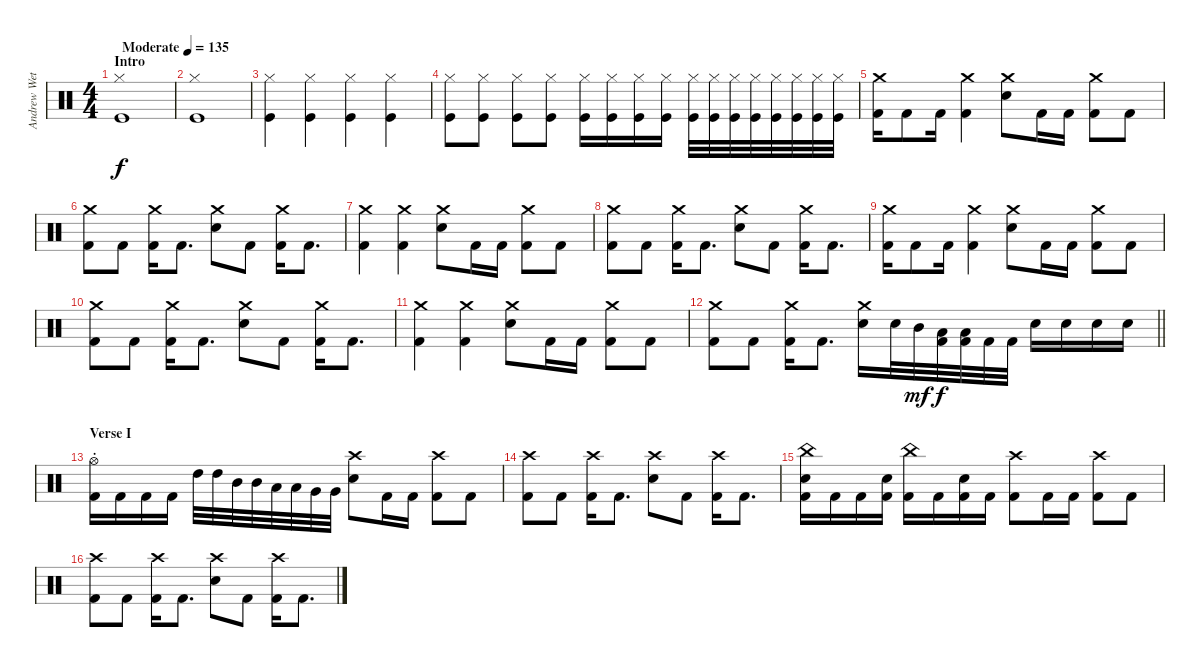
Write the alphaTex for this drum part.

\track ("Andrew Wetzel" "Andrew Wet") {instrument percussion}
\staff
\articulation defaults
\ts (4 4)
\section ("" "Intro")
\tempo (135 "Moderate")
\clef neutral
\ks c
("Hi-Hat (closed)" "Kick (hit)").1{dy f} |
("Hi-Hat (closed)" "Kick (hit)").1 |
("Hi-Hat (closed)" "Kick (hit)").4 ("Hi-Hat (closed)" "Kick (hit)").4 ("Hi-Hat (closed)" "Kick (hit)").4 ("Hi-Hat (closed)" "Kick (hit)").4 |
("Hi-Hat (closed)" "Kick (hit)").8 ("Hi-Hat (closed)" "Kick (hit)").8 ("Hi-Hat (closed)" "Kick (hit)").8 ("Hi-Hat (closed)" "Kick (hit)").8 ("Hi-Hat (closed)" "Kick (hit)").16 ("Hi-Hat (closed)" "Kick (hit)").16 ("Hi-Hat (closed)" "Kick (hit)").16 ("Hi-Hat (closed)" "Kick (hit)").16 ("Hi-Hat (closed)" "Kick (hit)").32 ("Hi-Hat (closed)" "Kick (hit)").32 ("Hi-Hat (closed)" "Kick (hit)").32 ("Hi-Hat (closed)" "Kick (hit)").32 ("Hi-Hat (closed)" "Kick (hit)").32 ("Hi-Hat (closed)" "Kick (hit)").32 ("Hi-Hat (closed)" "Kick (hit)").32 ("Hi-Hat (closed)" "Kick (hit)").32 |
("Crash medium (hit)" "Kick (hit) 2").16 "Kick (hit) 2".8 "Kick (hit) 2".16 ("Crash medium (hit)" "Kick (hit) 2").4 ("Crash medium (hit)" "Snare (hit) 2").8 "Kick (hit) 2".16 "Kick (hit) 2".16 ("Crash medium (hit)" "Kick (hit) 2").8 "Kick (hit) 2".8 |
("Crash medium (hit)" "Kick (hit) 2").8 "Kick (hit) 2".8 ("Crash medium (hit)" "Kick (hit) 2").16 "Kick (hit) 2".8{d} ("Crash medium (hit)" "Snare (hit) 2").8 "Kick (hit) 2".8 ("Crash medium (hit)" "Kick (hit) 2").16 "Kick (hit) 2".8{d} |
("Crash medium (hit)" "Kick (hit) 2").4 ("Crash medium (hit)" "Kick (hit) 2").4 ("Crash medium (hit)" "Snare (hit) 2").8 "Kick (hit) 2".16 "Kick (hit) 2".16 ("Crash medium (hit)" "Kick (hit) 2").8 "Kick (hit) 2".8 |
("Crash medium (hit)" "Kick (hit) 2").8 "Kick (hit) 2".8 ("Crash medium (hit)" "Kick (hit) 2").16 "Kick (hit) 2".8{d} ("Crash medium (hit)" "Snare (hit) 2").8 "Kick (hit) 2".8 ("Crash medium (hit)" "Kick (hit) 2").16 "Kick (hit) 2".8{d} |
("Crash medium (hit)" "Kick (hit) 2").16 "Kick (hit) 2".8 "Kick (hit) 2".16 ("Crash medium (hit)" "Kick (hit) 2").4 ("Crash medium (hit)" "Snare (hit) 2").8 "Kick (hit) 2".16 "Kick (hit) 2".16 ("Crash medium (hit)" "Kick (hit) 2").8 "Kick (hit) 2".8 |
("Crash medium (hit)" "Kick (hit) 2").8 "Kick (hit) 2".8 ("Crash medium (hit)" "Kick (hit) 2").16 "Kick (hit) 2".8{d} ("Crash medium (hit)" "Snare (hit) 2").8 "Kick (hit) 2".8 ("Crash medium (hit)" "Kick (hit) 2").16 "Kick (hit) 2".8{d} |
("Crash medium (hit)" "Kick (hit) 2").4 ("Crash medium (hit)" "Kick (hit) 2").4 ("Crash medium (hit)" "Snare (hit) 2").8 "Kick (hit) 2".16 "Kick (hit) 2".16 ("Crash medium (hit)" "Kick (hit) 2").8 "Kick (hit) 2".8 |
\barLineRight lightlight
("Crash medium (hit)" "Kick (hit) 2").8 "Kick (hit) 2".8 ("Crash medium (hit)" "Kick (hit) 2").16 "Kick (hit) 2".8{d} ("Crash medium (hit)" "Snare (hit) 2").16 "Snare (hit) 2".32 "Mid Tom (hit)".32{dy mf} ("Low Tom (hit)" "Kick (hit) 2").32{dy f} ("Low Tom (hit)" "Kick (hit) 2").32 "Kick (hit) 2".32 "Kick (hit) 2".32 "Snare (hit) 2".16 "Snare (hit) 2".16 "Snare (hit) 2".16 "Snare (hit) 2".16 |
\section ("" "Verse I")
("Hi-Hat (open)"{st} "Kick (hit) 2").16 "Kick (hit) 2".16 "Kick (hit) 2".16 "Kick (hit) 2".16 "High Tom (hit)".32 "High Tom (hit)".32 "Mid Tom (hit)".32 "Mid Tom (hit)".32 "Low Tom (hit)".32 "Low Tom (hit)".32 "Very Low Tom (hit)".32 "Very Low Tom (hit)".32 ("Crash high (hit)" "Snare (hit) 2").8 "Kick (hit) 2".16 "Kick (hit) 2".16 ("Crash high (hit)" "Kick (hit) 2").8 "Kick (hit) 2".8 |
("Crash high (hit)" "Kick (hit) 2").8 "Kick (hit) 2".8 ("Crash high (hit)" "Kick (hit) 2").16 "Kick (hit) 2".8{d} ("Crash high (hit)" "Snare (hit) 2").8 "Kick (hit) 2".8 ("Crash high (hit)" "Kick (hit) 2").16 "Kick (hit) 2".8{d} |
("China (hit)" "Snare (hit) 2" "Kick (hit) 2").16 "Kick (hit) 2".16 "Kick (hit) 2".16 ("Snare (hit) 2" "Kick (hit) 2").16 ("China (hit)" "Kick (hit) 2").16 "Kick (hit) 2".16 ("Snare (hit) 2" "Kick (hit) 2").16 "Kick (hit) 2".16 ("Crash high (hit)" "Kick (hit) 2").8 "Kick (hit) 2".16 "Kick (hit) 2".16 ("Crash high (hit)" "Kick (hit) 2").8 "Kick (hit) 2".8 |
("Crash high (hit)" "Kick (hit) 2").8 "Kick (hit) 2".8 ("Crash high (hit)" "Kick (hit) 2").16 "Kick (hit) 2".8{d} ("Crash high (hit)" "Snare (hit) 2").8 "Kick (hit) 2".8 ("Crash high (hit)" "Kick (hit) 2").16 "Kick (hit) 2".8{d}
